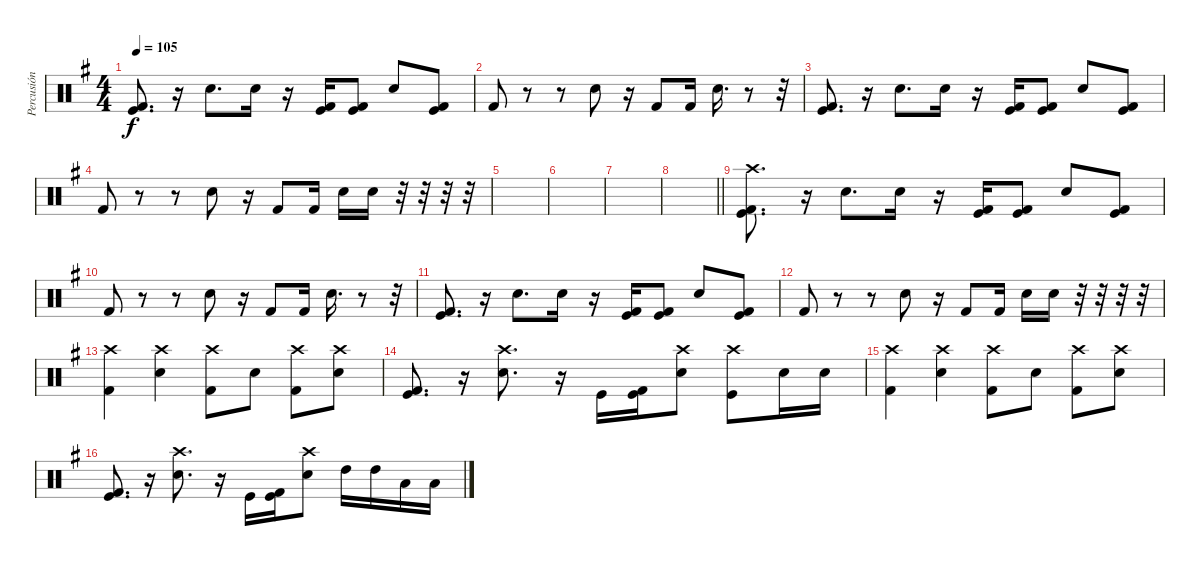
\track ("Percusión" "Percusión") {instrument percussion}
\staff {score}
\articulation defaults
\ts (4 4)
\tempo 105
\clef neutral
\ks g
("Kick (hit)" "Kick (hit) 2").8{d dy f} r.16 "Electric Snare (hit)".8{d} "Electric Snare (hit)".16 r.16 ("Kick (hit)" "Kick (hit) 2").16 ("Kick (hit)" "Kick (hit) 2").8 "Electric Snare (hit)".8 ("Kick (hit)" "Kick (hit) 2").8 |
"Kick (hit) 2".8 r.8 r.8 "Electric Snare (hit)".8 r.16 "Kick (hit) 2".8 "Kick (hit) 2".16 "Electric Snare (hit)".16{d} r.8 r.32 |
("Kick (hit)" "Kick (hit) 2").8{d} r.16 "Electric Snare (hit)".8{d} "Electric Snare (hit)".16 r.16 ("Kick (hit)" "Kick (hit) 2").16 ("Kick (hit)" "Kick (hit) 2").8 "Electric Snare (hit)".8 ("Kick (hit)" "Kick (hit) 2").8 |
"Kick (hit) 2".8 r.8 r.8 "Electric Snare (hit)".8 r.16 "Kick (hit) 2".8 "Kick (hit) 2".16 "Electric Snare (hit)".16 "Electric Snare (hit)".16 r.32 r.32 r.32 r.32 |
|
|
|
\barLineRight lightlight
|
("Crash high (hit)" "Kick (hit)" "Kick (hit) 2").8{d} r.16 "Electric Snare (hit)".8{d} "Electric Snare (hit)".16 r.16 ("Kick (hit)" "Kick (hit) 2").16 ("Kick (hit)" "Kick (hit) 2").8 "Electric Snare (hit)".8 ("Kick (hit)" "Kick (hit) 2").8 |
"Kick (hit) 2".8 r.8 r.8 "Electric Snare (hit)".8 r.16 "Kick (hit) 2".8 "Kick (hit) 2".16 "Electric Snare (hit)".16{d} r.8 r.32 |
("Kick (hit)" "Kick (hit) 2").8{d} r.16 "Electric Snare (hit)".8{d} "Electric Snare (hit)".16 r.16 ("Kick (hit)" "Kick (hit) 2").16 ("Kick (hit)" "Kick (hit) 2").8 "Electric Snare (hit)".8 ("Kick (hit)" "Kick (hit) 2").8 |
"Kick (hit) 2".8 r.8 r.8 "Electric Snare (hit)".8 r.16 "Kick (hit) 2".8 "Kick (hit) 2".16 "Electric Snare (hit)".16 "Electric Snare (hit)".16 r.32 r.32 r.32 r.32 |
("Crash high (hit)" "Kick (hit) 2").4 ("Crash high (hit)" "Electric Snare (hit)").4 ("Crash high (hit)" "Kick (hit) 2").8 "Electric Snare (hit)".8 ("Crash high (hit)" "Kick (hit) 2").8 ("Crash high (hit)" "Electric Snare (hit)").8 |
("Kick (hit)" "Kick (hit) 2").8{d} r.16 ("Crash high (hit)" "Electric Snare (hit)").8{d} r.16 "Kick (hit)".16 ("Kick (hit)" "Kick (hit) 2").16 ("Crash high (hit)" "Electric Snare (hit)").8 ("Crash high (hit)" "Kick (hit)").8 "Electric Snare (hit)".16 "Electric Snare (hit)".16 |
("Crash high (hit)" "Kick (hit) 2").4 ("Crash high (hit)" "Electric Snare (hit)").4 ("Crash high (hit)" "Kick (hit) 2").8 "Electric Snare (hit)".8 ("Crash high (hit)" "Kick (hit) 2").8 ("Crash high (hit)" "Electric Snare (hit)").8 |
("Kick (hit)" "Kick (hit) 2").8{d} r.16 ("Crash high (hit)" "Electric Snare (hit)").8{d} r.16 "Kick (hit)".16 ("Kick (hit)" "Kick (hit) 2").16 ("Crash high (hit)" "Electric Snare (hit)").8 "High Tom (hit)".16 "High Tom (hit)".16 "Low Tom (hit)".16 "Low Tom (hit)".16
